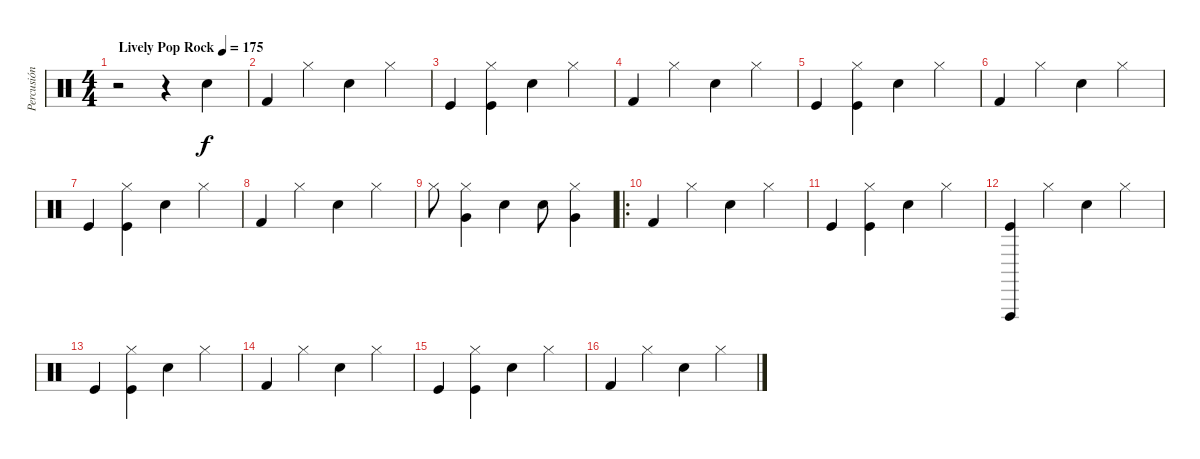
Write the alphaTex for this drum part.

\track ("Percusión" "Percusión") {instrument percussion}
\staff {score}
\articulation defaults
\ts (4 4)
\tempo (175 "Lively Pop Rock")
\clef neutral
\ks c
r.2{dy f} r.4 "Electric Snare (hit)".4 |
"Kick (hit) 2".4 "Hi-Hat (closed)".4 "Electric Snare (hit)".4 "Hi-Hat (closed)".4 |
"Kick (hit)".4 ("Kick (hit)" "Hi-Hat (closed)").4 "Electric Snare (hit)".4 "Hi-Hat (closed)".4 |
"Kick (hit) 2".4 "Hi-Hat (closed)".4 "Electric Snare (hit)".4 "Hi-Hat (closed)".4 |
"Kick (hit)".4 ("Kick (hit)" "Hi-Hat (closed)").4 "Electric Snare (hit)".4 "Hi-Hat (closed)".4 |
"Kick (hit) 2".4 "Hi-Hat (closed)".4 "Electric Snare (hit)".4 "Hi-Hat (closed)".4 |
"Kick (hit)".4 ("Kick (hit)" "Hi-Hat (closed)").4 "Electric Snare (hit)".4 "Hi-Hat (closed)".4 |
"Kick (hit) 2".4 "Hi-Hat (closed)".4 "Electric Snare (hit)".4 "Hi-Hat (closed)".4 |
"Hi-Hat (closed)".8 ("Very Low Tom (hit)" "Hi-Hat (closed)").4 "Electric Snare (hit)".4 "Electric Snare (hit)".8 ("Very Low Tom (hit)" "Hi-Hat (closed)").4 |
\ro "Kick (hit) 2".4 "Hi-Hat (closed)".4 "Snare (hit) 2".4 "Hi-Hat (closed)".4
|
"Kick (hit)".4 ("Kick (hit)" "Hi-Hat (closed)").4 "Electric Snare (hit)".4 "Hi-Hat (closed)".4 |
("Vibraslap (hit)" "Kick (hit)").4 "Hi-Hat (closed)".4 "Snare (hit) 2".4 "Hi-Hat (closed)".4 |
"Kick (hit)".4 ("Kick (hit)" "Hi-Hat (closed)").4 "Electric Snare (hit)".4 "Hi-Hat (closed)".4 |
"Kick (hit) 2".4 "Hi-Hat (closed)".4 "Snare (hit) 2".4 "Hi-Hat (closed)".4 |
"Kick (hit)".4 ("Kick (hit)" "Hi-Hat (closed)").4 "Electric Snare (hit)".4 "Hi-Hat (closed)".4 |
"Kick (hit) 2".4 "Hi-Hat (closed)".4 "Snare (hit) 2".4 "Hi-Hat (closed)".4
